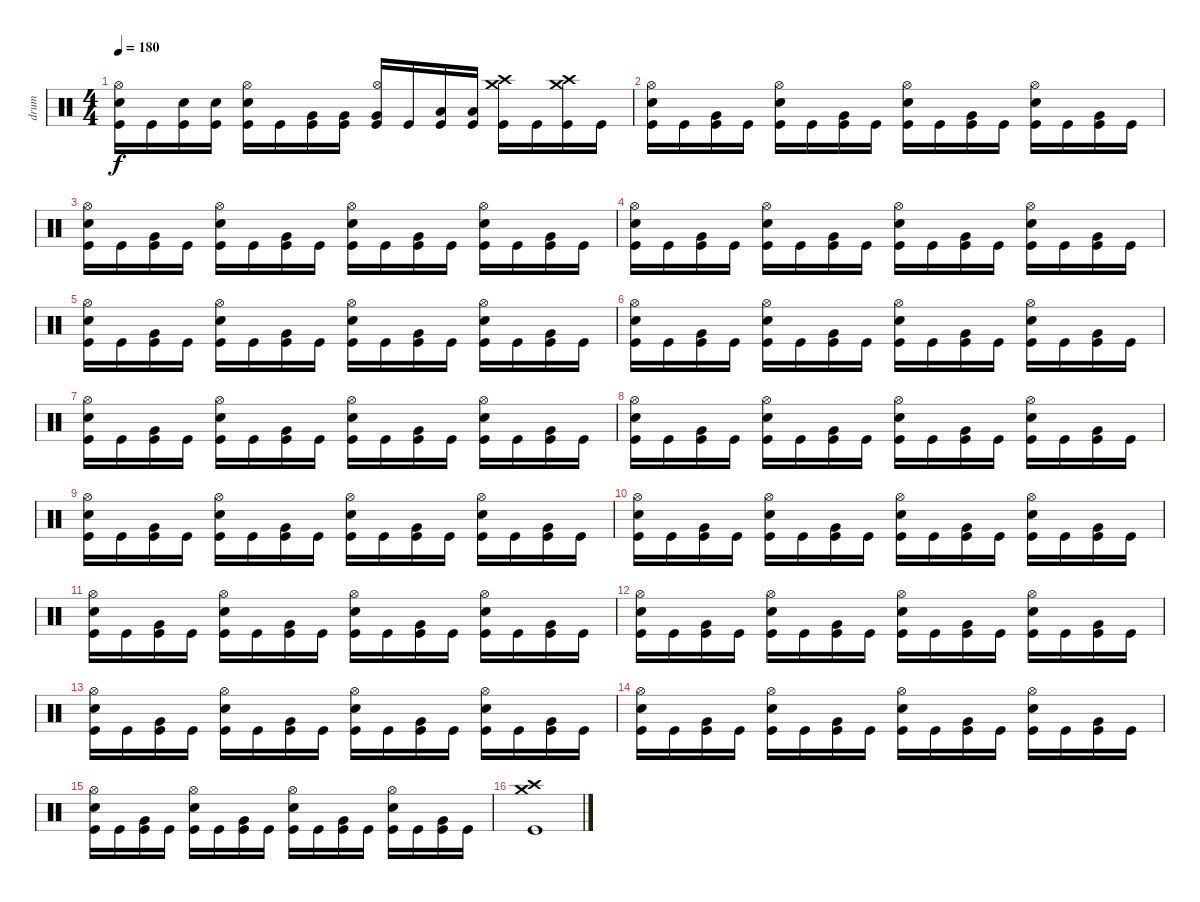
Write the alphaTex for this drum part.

\track ("drum" "drum") {instrument percussion}
\staff {score}
\articulation defaults
\ts (4 4)
\tempo 180
\clef neutral
\ks c
("Kick (hit)" "Snare (hit) 2" "Hi-Hat (open)").16{dy f} "Kick (hit)".16 ("Kick (hit)" "Snare (hit) 2").16 ("Kick (hit)" "Snare (hit) 2").16 ("Kick (hit)" "Snare (hit) 2" "Hi-Hat (open)").16 "Kick (hit)".16 ("Kick (hit)" "Very Low Tom (hit)").16 ("Kick (hit)" "Very Low Tom (hit)").16 ("Kick (hit)" "Very Low Tom (hit)" "Hi-Hat (open)").16 "Kick (hit)".16 ("Kick (hit)" "Low Tom (hit)").16 ("Kick (hit)" "Low Tom (hit)").16 ("Kick (hit)" "Crash high (hit)" "Crash medium (hit)").16 "Kick (hit)".16 ("Kick (hit)" "Crash high (hit)" "Crash medium (hit)").16 "Kick (hit)".16 |
("Kick (hit)" "Snare (hit) 2" "Hi-Hat (open)").16 "Kick (hit)".16 ("Kick (hit)" "Very Low Tom (hit)").16 "Kick (hit)".16 ("Kick (hit)" "Snare (hit) 2" "Hi-Hat (open)").16 "Kick (hit)".16 ("Kick (hit)" "Very Low Tom (hit)").16 "Kick (hit)".16 ("Kick (hit)" "Snare (hit) 2" "Hi-Hat (open)").16 "Kick (hit)".16 ("Kick (hit)" "Very Low Tom (hit)").16 "Kick (hit)".16 ("Kick (hit)" "Snare (hit) 2" "Hi-Hat (open)").16 "Kick (hit)".16 ("Kick (hit)" "Very Low Tom (hit)").16 "Kick (hit)".16 |
("Kick (hit)" "Snare (hit) 2" "Hi-Hat (open)").16 "Kick (hit)".16 ("Kick (hit)" "Very Low Tom (hit)").16 "Kick (hit)".16 ("Kick (hit)" "Snare (hit) 2" "Hi-Hat (open)").16 "Kick (hit)".16 ("Kick (hit)" "Very Low Tom (hit)").16 "Kick (hit)".16 ("Kick (hit)" "Snare (hit) 2" "Hi-Hat (open)").16 "Kick (hit)".16 ("Kick (hit)" "Very Low Tom (hit)").16 "Kick (hit)".16 ("Kick (hit)" "Snare (hit) 2" "Hi-Hat (open)").16 "Kick (hit)".16 ("Kick (hit)" "Very Low Tom (hit)").16 "Kick (hit)".16 |
("Kick (hit)" "Snare (hit) 2" "Hi-Hat (open)").16 "Kick (hit)".16 ("Kick (hit)" "Very Low Tom (hit)").16 "Kick (hit)".16 ("Kick (hit)" "Snare (hit) 2" "Hi-Hat (open)").16 "Kick (hit)".16 ("Kick (hit)" "Very Low Tom (hit)").16 "Kick (hit)".16 ("Kick (hit)" "Snare (hit) 2" "Hi-Hat (open)").16 "Kick (hit)".16 ("Kick (hit)" "Very Low Tom (hit)").16 "Kick (hit)".16 ("Kick (hit)" "Snare (hit) 2" "Hi-Hat (open)").16 "Kick (hit)".16 ("Kick (hit)" "Very Low Tom (hit)").16 "Kick (hit)".16 |
("Kick (hit)" "Snare (hit) 2" "Hi-Hat (open)").16 "Kick (hit)".16 ("Kick (hit)" "Very Low Tom (hit)").16 "Kick (hit)".16 ("Kick (hit)" "Snare (hit) 2" "Hi-Hat (open)").16 "Kick (hit)".16 ("Kick (hit)" "Very Low Tom (hit)").16 "Kick (hit)".16 ("Kick (hit)" "Snare (hit) 2" "Hi-Hat (open)").16 "Kick (hit)".16 ("Kick (hit)" "Very Low Tom (hit)").16 "Kick (hit)".16 ("Kick (hit)" "Snare (hit) 2" "Hi-Hat (open)").16 "Kick (hit)".16 ("Kick (hit)" "Very Low Tom (hit)").16 "Kick (hit)".16 |
("Kick (hit)" "Snare (hit) 2" "Hi-Hat (open)").16 "Kick (hit)".16 ("Kick (hit)" "Very Low Tom (hit)").16 "Kick (hit)".16 ("Kick (hit)" "Snare (hit) 2" "Hi-Hat (open)").16 "Kick (hit)".16 ("Kick (hit)" "Very Low Tom (hit)").16 "Kick (hit)".16 ("Kick (hit)" "Snare (hit) 2" "Hi-Hat (open)").16 "Kick (hit)".16 ("Kick (hit)" "Very Low Tom (hit)").16 "Kick (hit)".16 ("Kick (hit)" "Snare (hit) 2" "Hi-Hat (open)").16 "Kick (hit)".16 ("Kick (hit)" "Very Low Tom (hit)").16 "Kick (hit)".16 |
("Kick (hit)" "Snare (hit) 2" "Hi-Hat (open)").16 "Kick (hit)".16 ("Kick (hit)" "Very Low Tom (hit)").16 "Kick (hit)".16 ("Kick (hit)" "Snare (hit) 2" "Hi-Hat (open)").16 "Kick (hit)".16 ("Kick (hit)" "Very Low Tom (hit)").16 "Kick (hit)".16 ("Kick (hit)" "Snare (hit) 2" "Hi-Hat (open)").16 "Kick (hit)".16 ("Kick (hit)" "Very Low Tom (hit)").16 "Kick (hit)".16 ("Kick (hit)" "Snare (hit) 2" "Hi-Hat (open)").16 "Kick (hit)".16 ("Kick (hit)" "Very Low Tom (hit)").16 "Kick (hit)".16 |
("Kick (hit)" "Snare (hit) 2" "Hi-Hat (open)").16 "Kick (hit)".16 ("Kick (hit)" "Very Low Tom (hit)").16 "Kick (hit)".16 ("Kick (hit)" "Snare (hit) 2" "Hi-Hat (open)").16 "Kick (hit)".16 ("Kick (hit)" "Very Low Tom (hit)").16 "Kick (hit)".16 ("Kick (hit)" "Snare (hit) 2" "Hi-Hat (open)").16 "Kick (hit)".16 ("Kick (hit)" "Very Low Tom (hit)").16 "Kick (hit)".16 ("Kick (hit)" "Snare (hit) 2" "Hi-Hat (open)").16 "Kick (hit)".16 ("Kick (hit)" "Very Low Tom (hit)").16 "Kick (hit)".16 |
("Kick (hit)" "Snare (hit) 2" "Hi-Hat (open)").16 "Kick (hit)".16 ("Kick (hit)" "Very Low Tom (hit)").16 "Kick (hit)".16 ("Kick (hit)" "Snare (hit) 2" "Hi-Hat (open)").16 "Kick (hit)".16 ("Kick (hit)" "Very Low Tom (hit)").16 "Kick (hit)".16 ("Kick (hit)" "Snare (hit) 2" "Hi-Hat (open)").16 "Kick (hit)".16 ("Kick (hit)" "Very Low Tom (hit)").16 "Kick (hit)".16 ("Kick (hit)" "Snare (hit) 2" "Hi-Hat (open)").16 "Kick (hit)".16 ("Kick (hit)" "Very Low Tom (hit)").16 "Kick (hit)".16 |
("Kick (hit)" "Snare (hit) 2" "Hi-Hat (open)").16 "Kick (hit)".16 ("Kick (hit)" "Very Low Tom (hit)").16 "Kick (hit)".16 ("Kick (hit)" "Snare (hit) 2" "Hi-Hat (open)").16 "Kick (hit)".16 ("Kick (hit)" "Very Low Tom (hit)").16 "Kick (hit)".16 ("Kick (hit)" "Snare (hit) 2" "Hi-Hat (open)").16 "Kick (hit)".16 ("Kick (hit)" "Very Low Tom (hit)").16 "Kick (hit)".16 ("Kick (hit)" "Snare (hit) 2" "Hi-Hat (open)").16 "Kick (hit)".16 ("Kick (hit)" "Very Low Tom (hit)").16 "Kick (hit)".16 |
("Kick (hit)" "Snare (hit) 2" "Hi-Hat (open)").16 "Kick (hit)".16 ("Kick (hit)" "Very Low Tom (hit)").16 "Kick (hit)".16 ("Kick (hit)" "Snare (hit) 2" "Hi-Hat (open)").16 "Kick (hit)".16 ("Kick (hit)" "Very Low Tom (hit)").16 "Kick (hit)".16 ("Kick (hit)" "Snare (hit) 2" "Hi-Hat (open)").16 "Kick (hit)".16 ("Kick (hit)" "Very Low Tom (hit)").16 "Kick (hit)".16 ("Kick (hit)" "Snare (hit) 2" "Hi-Hat (open)").16 "Kick (hit)".16 ("Kick (hit)" "Very Low Tom (hit)").16 "Kick (hit)".16 |
("Kick (hit)" "Snare (hit) 2" "Hi-Hat (open)").16 "Kick (hit)".16 ("Kick (hit)" "Very Low Tom (hit)").16 "Kick (hit)".16 ("Kick (hit)" "Snare (hit) 2" "Hi-Hat (open)").16 "Kick (hit)".16 ("Kick (hit)" "Very Low Tom (hit)").16 "Kick (hit)".16 ("Kick (hit)" "Snare (hit) 2" "Hi-Hat (open)").16 "Kick (hit)".16 ("Kick (hit)" "Very Low Tom (hit)").16 "Kick (hit)".16 ("Kick (hit)" "Snare (hit) 2" "Hi-Hat (open)").16 "Kick (hit)".16 ("Kick (hit)" "Very Low Tom (hit)").16 "Kick (hit)".16 |
("Kick (hit)" "Snare (hit) 2" "Hi-Hat (open)").16 "Kick (hit)".16 ("Kick (hit)" "Very Low Tom (hit)").16 "Kick (hit)".16 ("Kick (hit)" "Snare (hit) 2" "Hi-Hat (open)").16 "Kick (hit)".16 ("Kick (hit)" "Very Low Tom (hit)").16 "Kick (hit)".16 ("Kick (hit)" "Snare (hit) 2" "Hi-Hat (open)").16 "Kick (hit)".16 ("Kick (hit)" "Very Low Tom (hit)").16 "Kick (hit)".16 ("Kick (hit)" "Snare (hit) 2" "Hi-Hat (open)").16 "Kick (hit)".16 ("Kick (hit)" "Very Low Tom (hit)").16 "Kick (hit)".16 |
("Kick (hit)" "Snare (hit) 2" "Hi-Hat (open)").16 "Kick (hit)".16 ("Kick (hit)" "Very Low Tom (hit)").16 "Kick (hit)".16 ("Kick (hit)" "Snare (hit) 2" "Hi-Hat (open)").16 "Kick (hit)".16 ("Kick (hit)" "Very Low Tom (hit)").16 "Kick (hit)".16 ("Kick (hit)" "Snare (hit) 2" "Hi-Hat (open)").16 "Kick (hit)".16 ("Kick (hit)" "Very Low Tom (hit)").16 "Kick (hit)".16 ("Kick (hit)" "Snare (hit) 2" "Hi-Hat (open)").16 "Kick (hit)".16 ("Kick (hit)" "Very Low Tom (hit)").16 "Kick (hit)".16 |
("Kick (hit)" "Snare (hit) 2" "Hi-Hat (open)").16 "Kick (hit)".16 ("Kick (hit)" "Very Low Tom (hit)").16 "Kick (hit)".16 ("Kick (hit)" "Snare (hit) 2" "Hi-Hat (open)").16 "Kick (hit)".16 ("Kick (hit)" "Very Low Tom (hit)").16 "Kick (hit)".16 ("Kick (hit)" "Snare (hit) 2" "Hi-Hat (open)").16 "Kick (hit)".16 ("Kick (hit)" "Very Low Tom (hit)").16 "Kick (hit)".16 ("Kick (hit)" "Snare (hit) 2" "Hi-Hat (open)").16 "Kick (hit)".16 ("Kick (hit)" "Very Low Tom (hit)").16 "Kick (hit)".16 |
("Kick (hit)" "Crash high (hit)" "Crash medium (hit)").1
